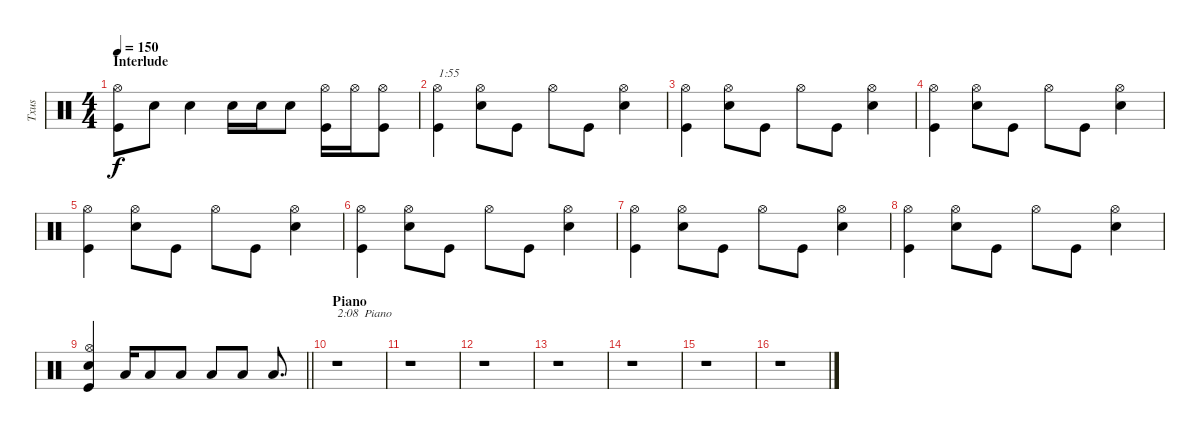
\track ("Txus" "Txus") {instrument percussion}
\staff {score}
\articulation defaults
\ts (4 4)
\section ("" "Interlude")
\tempo 150
\clef neutral
\ks c
("Kick (hit)" "Hi-Hat (open)").8{dy f} "Snare (hit) 2".8 "Snare (hit) 2".4 "Snare (hit) 2".16 "Snare (hit) 2".16 "Snare (hit) 2".8 ("Kick (hit)" "Hi-Hat (open)").16 "Hi-Hat (open)".16 ("Kick (hit)" "Hi-Hat (open)").8 |
("Kick (hit)" "Hi-Hat (open)").4{txt "1:55"} ("Snare (hit) 2" "Hi-Hat (open)").8 "Kick (hit)".8 "Hi-Hat (open)".8 "Kick (hit)".8 ("Snare (hit) 2" "Hi-Hat (open)").4 |
("Kick (hit)" "Hi-Hat (open)").4 ("Snare (hit) 2" "Hi-Hat (open)").8 "Kick (hit)".8 "Hi-Hat (open)".8 "Kick (hit)".8 ("Snare (hit) 2" "Hi-Hat (open)").4 |
("Kick (hit)" "Hi-Hat (open)").4 ("Snare (hit) 2" "Hi-Hat (open)").8 "Kick (hit)".8 "Hi-Hat (open)".8 "Kick (hit)".8 ("Snare (hit) 2" "Hi-Hat (open)").4 |
("Kick (hit)" "Hi-Hat (open)").4 ("Snare (hit) 2" "Hi-Hat (open)").8 "Kick (hit)".8 "Hi-Hat (open)".8 "Kick (hit)".8 ("Snare (hit) 2" "Hi-Hat (open)").4 |
("Kick (hit)" "Hi-Hat (open)").4 ("Snare (hit) 2" "Hi-Hat (open)").8 "Kick (hit)".8 "Hi-Hat (open)".8 "Kick (hit)".8 ("Snare (hit) 2" "Hi-Hat (open)").4 |
("Kick (hit)" "Hi-Hat (open)").4 ("Snare (hit) 2" "Hi-Hat (open)").8 "Kick (hit)".8 "Hi-Hat (open)".8 "Kick (hit)".8 ("Snare (hit) 2" "Hi-Hat (open)").4 |
("Kick (hit)" "Hi-Hat (open)").4 ("Snare (hit) 2" "Hi-Hat (open)").8 "Kick (hit)".8 "Hi-Hat (open)".8 "Kick (hit)".8 ("Snare (hit) 2" "Hi-Hat (open)").4 |
\barLineRight lightlight
("Kick (hit)" "Snare (hit) 2" "Hi-Hat (open)").4 "Low Floor Tom (hit)".16 "Low Floor Tom (hit)".8 "Low Floor Tom (hit)".8 "Low Floor Tom (hit)".8 "Low Floor Tom (hit)".8 "Low Floor Tom (hit)".8{d} |
\section ("" "Piano")
r.1{txt "2:08  Piano"} |
r.1 |
r.1 |
r.1 |
r.1 |
r.1 |
r.1
